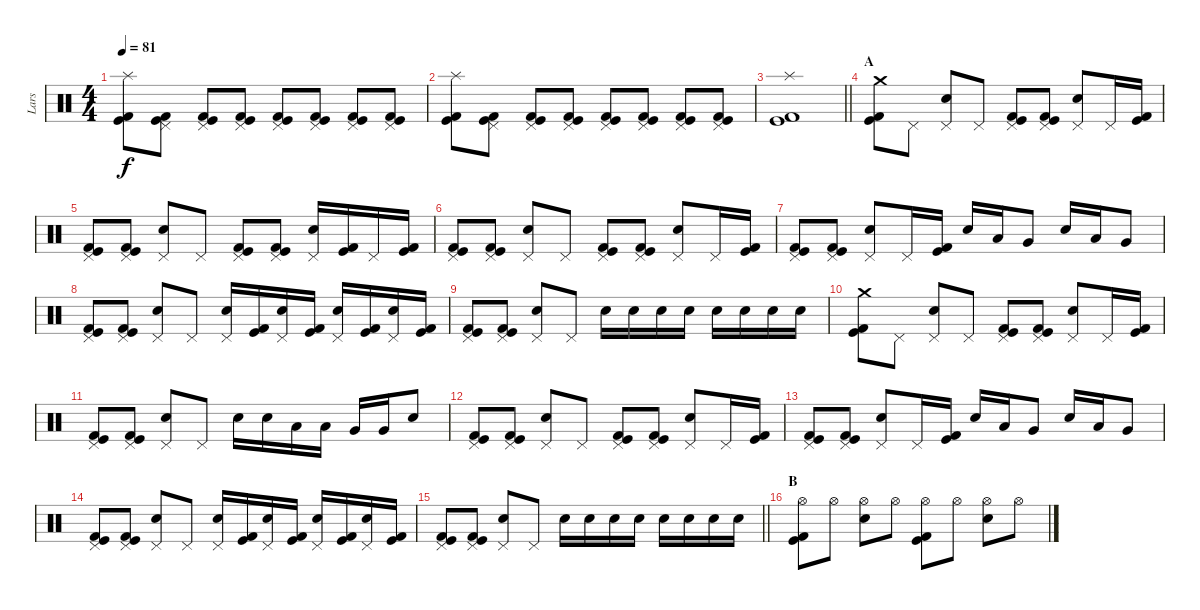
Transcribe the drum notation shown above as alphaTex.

\track ("Lars" "Lars") {instrument percussion}
\staff {score}
\articulation defaults
\ts (4 4)
\tempo 81
\clef neutral
\ks c
("Splash (hit)" "Kick (hit)" "Kick (hit) 2").8{dy f} ("Pedal Hi-Hat (hit)" "Kick (hit)" "Kick (hit) 2").8 ("Pedal Hi-Hat (hit)" "Kick (hit)" "Kick (hit) 2").8 ("Pedal Hi-Hat (hit)" "Kick (hit)" "Kick (hit) 2").8 ("Pedal Hi-Hat (hit)" "Kick (hit)" "Kick (hit) 2").8 ("Pedal Hi-Hat (hit)" "Kick (hit)" "Kick (hit) 2").8 ("Pedal Hi-Hat (hit)" "Kick (hit)" "Kick (hit) 2").8 ("Pedal Hi-Hat (hit)" "Kick (hit)" "Kick (hit) 2").8 |
("Splash (hit)" "Kick (hit)" "Kick (hit) 2").8 ("Pedal Hi-Hat (hit)" "Kick (hit)" "Kick (hit) 2").8 ("Pedal Hi-Hat (hit)" "Kick (hit)" "Kick (hit) 2").8 ("Pedal Hi-Hat (hit)" "Kick (hit)" "Kick (hit) 2").8 ("Pedal Hi-Hat (hit)" "Kick (hit)" "Kick (hit) 2").8 ("Pedal Hi-Hat (hit)" "Kick (hit)" "Kick (hit) 2").8 ("Pedal Hi-Hat (hit)" "Kick (hit)" "Kick (hit) 2").8 ("Pedal Hi-Hat (hit)" "Kick (hit)" "Kick (hit) 2").8 |
\barLineRight lightlight
("Splash (hit)" "Kick (hit)" "Kick (hit) 2").1 |
\section ("" "A")
("Crash medium (hit)" "Kick (hit)" "Kick (hit) 2").8 "Pedal Hi-Hat (hit)".8 ("Pedal Hi-Hat (hit)" "Electric Snare (hit)").8 "Pedal Hi-Hat (hit)".8 ("Pedal Hi-Hat (hit)" "Kick (hit)" "Kick (hit) 2").8 ("Pedal Hi-Hat (hit)" "Kick (hit)" "Kick (hit) 2").8 ("Pedal Hi-Hat (hit)" "Electric Snare (hit)").8 "Pedal Hi-Hat (hit)".16 ("Kick (hit)" "Kick (hit) 2").16 |
("Pedal Hi-Hat (hit)" "Kick (hit)" "Kick (hit) 2").8 ("Pedal Hi-Hat (hit)" "Kick (hit)" "Kick (hit) 2").8 ("Pedal Hi-Hat (hit)" "Electric Snare (hit)").8 "Pedal Hi-Hat (hit)".8 ("Pedal Hi-Hat (hit)" "Kick (hit)" "Kick (hit) 2").8 ("Pedal Hi-Hat (hit)" "Kick (hit)" "Kick (hit) 2").8 ("Pedal Hi-Hat (hit)" "Electric Snare (hit)").16 ("Kick (hit)" "Kick (hit) 2").16 "Pedal Hi-Hat (hit)".16 ("Kick (hit)" "Kick (hit) 2").16 |
("Pedal Hi-Hat (hit)" "Kick (hit)" "Kick (hit) 2").8 ("Pedal Hi-Hat (hit)" "Kick (hit)" "Kick (hit) 2").8 ("Pedal Hi-Hat (hit)" "Electric Snare (hit)").8 "Pedal Hi-Hat (hit)".8 ("Pedal Hi-Hat (hit)" "Kick (hit)" "Kick (hit) 2").8 ("Pedal Hi-Hat (hit)" "Kick (hit)" "Kick (hit) 2").8 ("Pedal Hi-Hat (hit)" "Electric Snare (hit)").8 "Pedal Hi-Hat (hit)".16 ("Kick (hit)" "Kick (hit) 2").16 |
("Pedal Hi-Hat (hit)" "Kick (hit)" "Kick (hit) 2").8 ("Pedal Hi-Hat (hit)" "Kick (hit)" "Kick (hit) 2").8 ("Pedal Hi-Hat (hit)" "Electric Snare (hit)").8 "Pedal Hi-Hat (hit)".16 ("Kick (hit)" "Kick (hit) 2").16 "Electric Snare (hit)".16 "Low Tom (hit)".16 "Very Low Tom (hit)".8 "Electric Snare (hit)".16 "Low Tom (hit)".16 "Very Low Tom (hit)".8 |
("Pedal Hi-Hat (hit)" "Kick (hit)" "Kick (hit) 2").8 ("Pedal Hi-Hat (hit)" "Kick (hit)" "Kick (hit) 2").8 ("Pedal Hi-Hat (hit)" "Electric Snare (hit)").8 "Pedal Hi-Hat (hit)".8 ("Pedal Hi-Hat (hit)" "Electric Snare (hit)").16 ("Kick (hit)" "Kick (hit) 2").16 ("Pedal Hi-Hat (hit)" "Electric Snare (hit)").16 ("Kick (hit)" "Kick (hit) 2").16 ("Pedal Hi-Hat (hit)" "Electric Snare (hit)").16 ("Kick (hit)" "Kick (hit) 2").16 ("Pedal Hi-Hat (hit)" "Electric Snare (hit)").16 ("Kick (hit)" "Kick (hit) 2").16 |
("Pedal Hi-Hat (hit)" "Kick (hit)" "Kick (hit) 2").8 ("Pedal Hi-Hat (hit)" "Kick (hit)" "Kick (hit) 2").8 ("Pedal Hi-Hat (hit)" "Electric Snare (hit)").8 "Pedal Hi-Hat (hit)".8 "Electric Snare (hit)".16 "Electric Snare (hit)".16 "Electric Snare (hit)".16 "Electric Snare (hit)".16 "Electric Snare (hit)".16 "Electric Snare (hit)".16 "Electric Snare (hit)".16 "Electric Snare (hit)".16 |
("Crash medium (hit)" "Kick (hit)" "Kick (hit) 2").8 "Pedal Hi-Hat (hit)".8 ("Pedal Hi-Hat (hit)" "Electric Snare (hit)").8 "Pedal Hi-Hat (hit)".8 ("Pedal Hi-Hat (hit)" "Kick (hit)" "Kick (hit) 2").8 ("Pedal Hi-Hat (hit)" "Kick (hit)" "Kick (hit) 2").8 ("Pedal Hi-Hat (hit)" "Electric Snare (hit)").8 "Pedal Hi-Hat (hit)".16 ("Kick (hit)" "Kick (hit) 2").16 |
("Pedal Hi-Hat (hit)" "Kick (hit)" "Kick (hit) 2").8 ("Pedal Hi-Hat (hit)" "Kick (hit)" "Kick (hit) 2").8 ("Pedal Hi-Hat (hit)" "Electric Snare (hit)").8 "Pedal Hi-Hat (hit)".8 "Electric Snare (hit)".16 "Electric Snare (hit)".16 "Low Tom (hit)".16 "Low Tom (hit)".16 "Very Low Tom (hit)".16 "Very Low Tom (hit)".16 "Electric Snare (hit)".8 |
("Pedal Hi-Hat (hit)" "Kick (hit)" "Kick (hit) 2").8 ("Pedal Hi-Hat (hit)" "Kick (hit)" "Kick (hit) 2").8 ("Pedal Hi-Hat (hit)" "Electric Snare (hit)").8 "Pedal Hi-Hat (hit)".8 ("Pedal Hi-Hat (hit)" "Kick (hit)" "Kick (hit) 2").8 ("Pedal Hi-Hat (hit)" "Kick (hit)" "Kick (hit) 2").8 ("Pedal Hi-Hat (hit)" "Electric Snare (hit)").8 "Pedal Hi-Hat (hit)".16 ("Kick (hit)" "Kick (hit) 2").16 |
("Pedal Hi-Hat (hit)" "Kick (hit)" "Kick (hit) 2").8 ("Pedal Hi-Hat (hit)" "Kick (hit)" "Kick (hit) 2").8 ("Pedal Hi-Hat (hit)" "Electric Snare (hit)").8 "Pedal Hi-Hat (hit)".16 ("Kick (hit)" "Kick (hit) 2").16 "Electric Snare (hit)".16 "Low Tom (hit)".16 "Very Low Tom (hit)".8 "Electric Snare (hit)".16 "Low Tom (hit)".16 "Very Low Tom (hit)".8 |
("Pedal Hi-Hat (hit)" "Kick (hit)" "Kick (hit) 2").8 ("Pedal Hi-Hat (hit)" "Kick (hit)" "Kick (hit) 2").8 ("Pedal Hi-Hat (hit)" "Electric Snare (hit)").8 "Pedal Hi-Hat (hit)".8 ("Pedal Hi-Hat (hit)" "Electric Snare (hit)").16 ("Kick (hit)" "Kick (hit) 2").16 ("Pedal Hi-Hat (hit)" "Electric Snare (hit)").16 ("Kick (hit)" "Kick (hit) 2").16 ("Pedal Hi-Hat (hit)" "Electric Snare (hit)").16 ("Kick (hit)" "Kick (hit) 2").16 ("Pedal Hi-Hat (hit)" "Electric Snare (hit)").16 ("Kick (hit)" "Kick (hit) 2").16 |
\barLineRight lightlight
("Pedal Hi-Hat (hit)" "Kick (hit)" "Kick (hit) 2").8 ("Pedal Hi-Hat (hit)" "Kick (hit)" "Kick (hit) 2").8 ("Pedal Hi-Hat (hit)" "Electric Snare (hit)").8 "Pedal Hi-Hat (hit)".8 "Electric Snare (hit)".16 "Electric Snare (hit)".16 "Electric Snare (hit)".16 "Electric Snare (hit)".16 "Electric Snare (hit)".16 "Electric Snare (hit)".16 "Electric Snare (hit)".16 "Electric Snare (hit)".16 |
\section ("" "B")
("Hi-Hat (open)" "Kick (hit)" "Kick (hit) 2").8 "Hi-Hat (open)".8 ("Hi-Hat (open)" "Electric Snare (hit)").8 "Hi-Hat (open)".8 ("Hi-Hat (open)" "Kick (hit)" "Kick (hit) 2").8 "Hi-Hat (open)".8 ("Hi-Hat (open)" "Electric Snare (hit)").8 "Hi-Hat (open)".8
